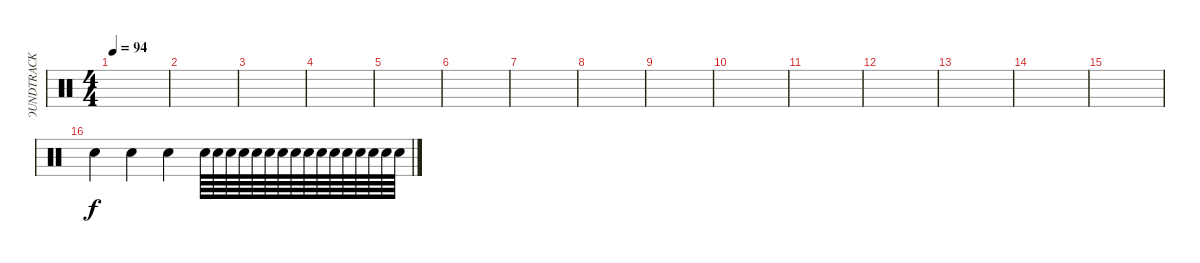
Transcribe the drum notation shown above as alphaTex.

\track ("SOUNDTRACK" "SOUNDTRACK") {instrument percussion}
\staff {score}
\articulation defaults
\ts (4 4)
\tempo 94
\clef neutral
\ks c
|
|
|
|
|
|
|
|
|
|
|
|
|
|
|
"Snare (hit)"{x}.4 "Snare (hit)"{x}.4 "Snare (hit)"{x}.4 "Snare (hit) 2".64{volume 16} "Snare (hit) 2".64 "Snare (hit)"{x}.64{volume 14} "Snare (hit)"{x}.64 "Snare (hit)"{x}.64 "Snare (hit)"{x}.64 "Snare (hit)"{x}.64 "Snare (hit)"{x}.64 "Snare (hit)"{x}.64 "Snare (hit)"{x}.64 "Snare (hit)"{x}.64 "Snare (hit)"{x}.64 "Snare (hit)"{x}.64 "Snare (hit)"{x}.64 "Snare (hit)"{x}.64 "Snare (hit)"{x}.64
